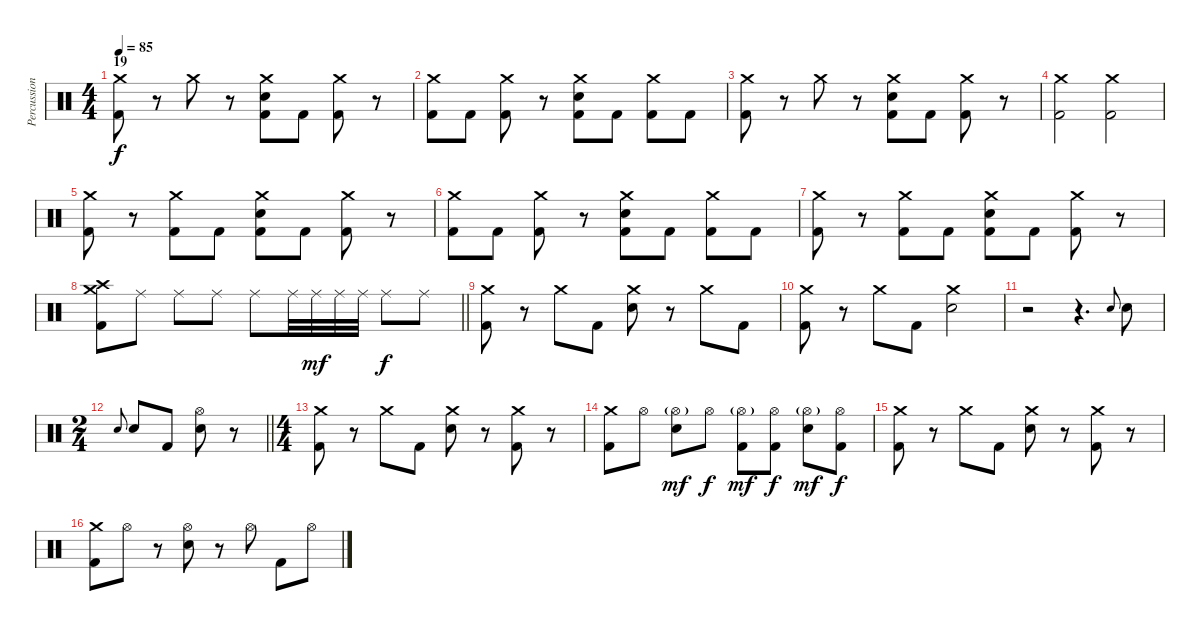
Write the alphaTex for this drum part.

\track ("Percussion" "Percussion") {instrument percussion}
\staff {score}
\articulation defaults
\ts (4 4)
\section ("" "19")
\tempo 85
\clef neutral
\ks c
("Crash medium (hit)" "Kick (hit) 2").8{dy f} r.8 "Crash medium (hit)".8 r.8 ("Crash medium (hit)" "Snare (hit) 2" "Kick (hit) 2").8 "Kick (hit) 2".8 ("Crash medium (hit)" "Kick (hit) 2").8 r.8 |
("Crash medium (hit)" "Kick (hit) 2").8 "Kick (hit) 2".8 ("Crash medium (hit)" "Kick (hit) 2").8 r.8 ("Crash medium (hit)" "Snare (hit) 2" "Kick (hit) 2").8 "Kick (hit) 2".8 ("Crash medium (hit)" "Kick (hit) 2").8 "Kick (hit) 2".8 |
("Crash medium (hit)" "Kick (hit) 2").8 r.8 "Crash medium (hit)".8 r.8 ("Crash medium (hit)" "Snare (hit) 2" "Kick (hit) 2").8 "Kick (hit) 2".8 ("Crash medium (hit)" "Kick (hit) 2").8 r.8 |
("Crash medium (hit)" "Kick (hit) 2").2 ("Crash medium (hit)" "Kick (hit) 2").2 |
("Crash medium (hit)" "Kick (hit) 2").8 r.8 ("Crash medium (hit)" "Kick (hit) 2").8 "Kick (hit) 2".8 ("Crash medium (hit)" "Snare (hit) 2" "Kick (hit) 2").8 "Kick (hit) 2".8 ("Crash medium (hit)" "Kick (hit) 2").8 r.8 |
("Crash medium (hit)" "Kick (hit) 2").8 "Kick (hit) 2".8 ("Crash medium (hit)" "Kick (hit) 2").8 r.8 ("Crash medium (hit)" "Snare (hit) 2" "Kick (hit) 2").8 "Kick (hit) 2".8 ("Crash medium (hit)" "Kick (hit) 2").8 "Kick (hit) 2".8 |
("Crash medium (hit)" "Kick (hit) 2").8 r.8 ("Crash medium (hit)" "Kick (hit) 2").8 "Kick (hit) 2".8 ("Crash medium (hit)" "Snare (hit) 2" "Kick (hit) 2").8 "Kick (hit) 2".8 ("Crash medium (hit)" "Kick (hit) 2").8 r.8 |
\barLineRight lightlight
("Crash medium (hit)" "Crash high (hit)" "Kick (hit) 2").8 "Ride (middle)".8 "Ride (middle)".8 "Ride (middle)".8 "Ride (middle)".8 "Ride (middle)".32 "Ride (middle)".32{dy mf} "Ride (middle)".32 "Ride (middle)".32 "Ride (middle)".8{dy f} "Ride (middle)".8 |
("Crash medium (hit)" "Kick (hit) 2").8 r.8 "Crash medium (hit)".8 "Kick (hit) 2".8 ("Crash medium (hit)" "Snare (hit) 2").8 r.8 "Crash medium (hit)".8 "Kick (hit) 2".8 |
("Crash medium (hit)" "Kick (hit) 2").8 r.8 "Crash medium (hit)".8 "Kick (hit) 2".8 ("Crash medium (hit)" "Snare (hit) 2").2 |
r.2 r.4{d} "Snare (hit) 2".8{gr onbeat} "Snare (hit) 2".8 |
\ts (2 4)
\barLineRight lightlight "Snare (hit) 2".8{gr onbeat} "Snare (hit) 2".8 "Kick (hit) 2".8
("Hi-Hat (open)" "Snare (hit) 2").8 r.8 |
\ts (4 4)
\section ("" "")
("Crash medium (hit)" "Kick (hit) 2").8 r.8 "Crash medium (hit)".8 "Kick (hit) 2".8 ("Crash medium (hit)" "Snare (hit) 2").8 r.8 ("Crash medium (hit)" "Kick (hit) 2").8 r.8 |
("Crash medium (hit)" "Kick (hit) 2").8 "Hi-Hat (open)".8 ("Hi-Hat (open)"{g} "Snare (hit) 2").8{dy mf} "Hi-Hat (open)".8{dy f} ("Hi-Hat (open)"{g} "Kick (hit) 2").8{dy mf} ("Hi-Hat (open)" "Kick (hit) 2").8{dy f} ("Hi-Hat (open)"{g} "Snare (hit) 2").8{dy mf} ("Hi-Hat (open)" "Kick (hit) 2").8{dy f} |
("Crash medium (hit)" "Kick (hit) 2").8 r.8 "Crash medium (hit)".8 "Kick (hit) 2".8 ("Crash medium (hit)" "Snare (hit) 2").8 r.8 ("Crash medium (hit)" "Kick (hit) 2").8 r.8 |
("Crash medium (hit)" "Kick (hit) 2").8 "Hi-Hat (open)".8 r.8 ("Hi-Hat (open)" "Snare (hit) 2").8 r.8 "Hi-Hat (open)".8 "Kick (hit) 2".8 "Hi-Hat (open)".8
